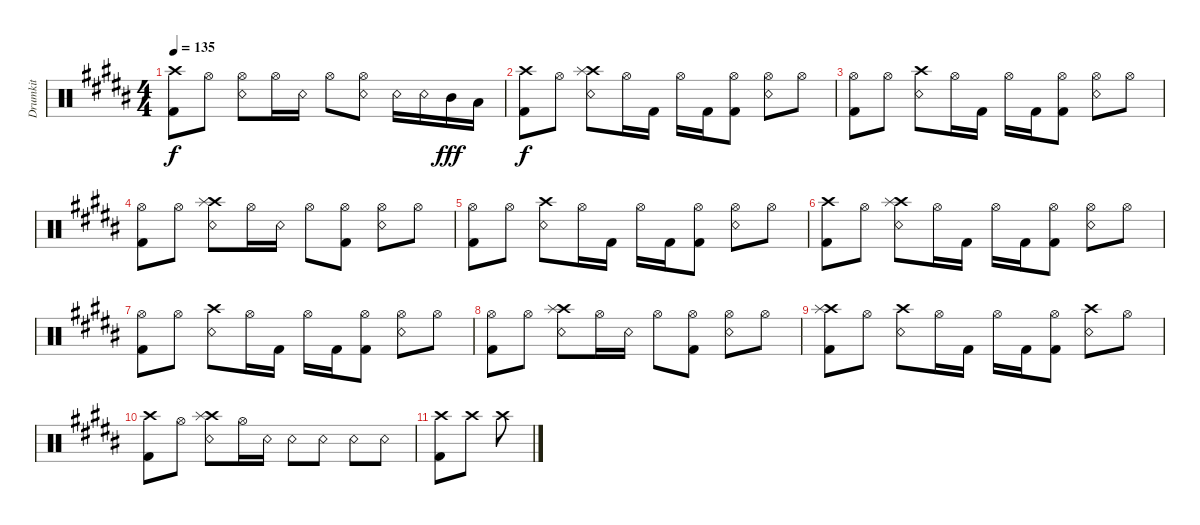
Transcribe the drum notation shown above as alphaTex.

\track ("Drumkit" "Drumkit") {instrument percussion}
\staff {score}
\articulation defaults
\ts (4 4)
\tempo 135
\clef neutral
\ks b
("Kick (hit) 2" "Crash high (hit)").8{dy f} "Hi-Hat (open)".8 ("Snare (rim shot)" "Hi-Hat (open)").8 "Hi-Hat (open)".16 "Snare (rim shot)".16 "Hi-Hat (open)".8 ("Hi-Hat (open)" "Snare (rim shot)").8 "Snare (rim shot)".16 "Snare (rim shot)".16 "Mid Tom (hit)".16{dy fff} "Low Tom (hit)".16 |
("Kick (hit) 2" "Crash high (hit)").8{dy f} "Hi-Hat (open)".8 ("Snare (rim shot)" "Crash high (hit)" "Splash (hit)").8 "Hi-Hat (open)".16 "Kick (hit) 2".16 "Hi-Hat (open)".16 "Kick (hit) 2".16 ("Kick (hit) 2" "Hi-Hat (open)").8 ("Snare (rim shot)" "Hi-Hat (open)").8 "Hi-Hat (open)".8 |
("Kick (hit) 2" "Hi-Hat (open)").8 "Hi-Hat (open)".8 ("Snare (rim shot)" "Crash high (hit)").8 "Hi-Hat (open)".16 "Kick (hit) 2".16 "Hi-Hat (open)".16 "Kick (hit) 2".16 ("Kick (hit) 2" "Hi-Hat (open)").8 ("Snare (rim shot)" "Hi-Hat (open)").8 "Hi-Hat (open)".8 |
("Kick (hit) 2" "Hi-Hat (open)").8 "Hi-Hat (open)".8 ("Snare (rim shot)" "Crash high (hit)" "Splash (hit)").8 "Hi-Hat (open)".16 "Snare (rim shot)".16 "Hi-Hat (open)".8 ("Hi-Hat (open)" "Kick (hit) 2").8 ("Snare (rim shot)" "Hi-Hat (open)").8 "Hi-Hat (open)".8 |
("Kick (hit) 2" "Hi-Hat (open)").8 "Hi-Hat (open)".8 ("Snare (rim shot)" "Crash high (hit)").8 "Hi-Hat (open)".16 "Kick (hit) 2".16 "Hi-Hat (open)".16 "Kick (hit) 2".16 ("Kick (hit) 2" "Hi-Hat (open)").8 ("Snare (rim shot)" "Hi-Hat (open)").8 "Hi-Hat (open)".8 |
("Kick (hit) 2" "Crash high (hit)").8 "Hi-Hat (open)".8 ("Snare (rim shot)" "Crash high (hit)" "Splash (hit)").8 "Hi-Hat (open)".16 "Kick (hit) 2".16 "Hi-Hat (open)".16 "Kick (hit) 2".16 ("Kick (hit) 2" "Hi-Hat (open)").8 ("Snare (rim shot)" "Hi-Hat (open)").8 "Hi-Hat (open)".8 |
("Kick (hit) 2" "Hi-Hat (open)").8 "Hi-Hat (open)".8 ("Snare (rim shot)" "Crash high (hit)").8 "Hi-Hat (open)".16 "Kick (hit) 2".16 "Hi-Hat (open)".16 "Kick (hit) 2".16 ("Kick (hit) 2" "Hi-Hat (open)").8 ("Snare (rim shot)" "Hi-Hat (open)").8 "Hi-Hat (open)".8 |
("Kick (hit) 2" "Hi-Hat (open)").8 "Hi-Hat (open)".8 ("Snare (rim shot)" "Crash high (hit)" "Splash (hit)").8 "Hi-Hat (open)".16 "Snare (rim shot)".16 "Hi-Hat (open)".8 ("Hi-Hat (open)" "Kick (hit) 2").8 ("Snare (rim shot)" "Hi-Hat (open)").8 "Hi-Hat (open)".8 |
("Kick (hit) 2" "Crash high (hit)" "Splash (hit)").8 "Hi-Hat (open)".8 ("Snare (rim shot)" "Crash high (hit)").8 "Hi-Hat (open)".16 "Kick (hit) 2".16 "Hi-Hat (open)".16 "Kick (hit) 2".16 ("Kick (hit) 2" "Hi-Hat (open)").8 ("Snare (rim shot)" "Crash high (hit)").8 "Hi-Hat (open)".8 |
("Kick (hit) 2" "Crash high (hit)").8 "Hi-Hat (open)".8 ("Snare (rim shot)" "Crash high (hit)" "Splash (hit)").8 "Hi-Hat (open)".16 "Snare (rim shot)".16 "Snare (rim shot)".8 "Snare (rim shot)".8 "Snare (rim shot)".8 "Snare (rim shot)".8 |
("Kick (hit) 2" "Crash high (hit)").8 "Crash high (hit)".8 "Crash high (hit)".8
